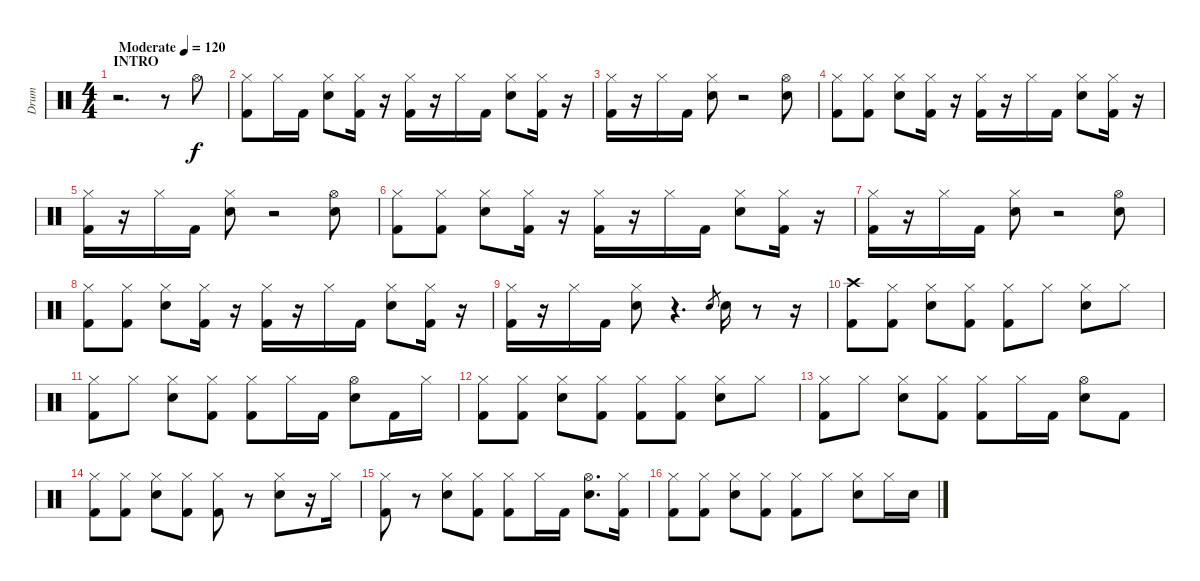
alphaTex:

\track ("Drum" "Drum") {instrument percussion}
\staff {score}
\articulation defaults
\ts (4 4)
\section ("" "INTRO")
\tempo (120 "Moderate")
\clef neutral
\ks c
r.2{d dy f} r.8 "Hi-Hat (open)".8 |
("Kick (hit) 2" "Hi-Hat (closed)").8 "Hi-Hat (closed)".16 "Kick (hit) 2".16 ("Snare (hit) 2" "Hi-Hat (closed)").8 ("Kick (hit) 2" "Hi-Hat (closed)").16 r.16 ("Kick (hit) 2" "Hi-Hat (closed)").16 r.16 "Hi-Hat (closed)".16 "Kick (hit) 2".16 ("Snare (hit) 2" "Hi-Hat (closed)").8 ("Kick (hit) 2" "Hi-Hat (closed)").16 r.16 |
("Kick (hit) 2" "Hi-Hat (closed)").16 r.16 "Hi-Hat (closed)".16 "Kick (hit) 2".16 ("Snare (hit) 2" "Hi-Hat (closed)").8 r.2 ("Snare (hit) 2" "Hi-Hat (open)").8 |
("Kick (hit) 2" "Hi-Hat (closed)").8 ("Kick (hit) 2" "Hi-Hat (closed)").8 ("Snare (hit) 2" "Hi-Hat (closed)").8 ("Kick (hit) 2" "Hi-Hat (closed)").16 r.16 ("Kick (hit) 2" "Hi-Hat (closed)").16 r.16 "Hi-Hat (closed)".16 "Kick (hit) 2".16 ("Snare (hit) 2" "Hi-Hat (closed)").8 ("Kick (hit) 2" "Hi-Hat (closed)").16 r.16 |
("Kick (hit) 2" "Hi-Hat (closed)").16 r.16 "Hi-Hat (closed)".16 "Kick (hit) 2".16 ("Snare (hit) 2" "Hi-Hat (closed)").8 r.2 ("Snare (hit) 2" "Hi-Hat (open)").8 |
("Kick (hit) 2" "Hi-Hat (closed)").8 ("Kick (hit) 2" "Hi-Hat (closed)").8 ("Snare (hit) 2" "Hi-Hat (closed)").8 ("Kick (hit) 2" "Hi-Hat (closed)").16 r.16 ("Kick (hit) 2" "Hi-Hat (closed)").16 r.16 "Hi-Hat (closed)".16 "Kick (hit) 2".16 ("Snare (hit) 2" "Hi-Hat (closed)").8 ("Kick (hit) 2" "Hi-Hat (closed)").16 r.16 |
("Kick (hit) 2" "Hi-Hat (closed)").16 r.16 "Hi-Hat (closed)".16 "Kick (hit) 2".16 ("Snare (hit) 2" "Hi-Hat (closed)").8 r.2 ("Snare (hit) 2" "Hi-Hat (open)").8 |
("Kick (hit) 2" "Hi-Hat (closed)").8 ("Kick (hit) 2" "Hi-Hat (closed)").8 ("Snare (hit) 2" "Hi-Hat (closed)").8 ("Kick (hit) 2" "Hi-Hat (closed)").16 r.16 ("Kick (hit) 2" "Hi-Hat (closed)").16 r.16 "Hi-Hat (closed)".16 "Kick (hit) 2".16 ("Snare (hit) 2" "Hi-Hat (closed)").8 ("Kick (hit) 2" "Hi-Hat (closed)").16 r.16 |
("Kick (hit) 2" "Hi-Hat (closed)").16 r.16 "Hi-Hat (closed)".16 "Kick (hit) 2".16 ("Snare (hit) 2" "Hi-Hat (closed)").8 r.4{d} "Electric Snare (hit)".8{gr} "Electric Snare (hit)".16 r.8 r.16 |
("Kick (hit) 2" "Crash high (hit)").8 ("Kick (hit) 2" "Hi-Hat (closed)").8 ("Snare (hit) 2" "Hi-Hat (closed)").8 ("Kick (hit) 2" "Hi-Hat (closed)").8 ("Kick (hit) 2" "Hi-Hat (closed)").8 "Hi-Hat (closed)".8 ("Snare (hit) 2" "Hi-Hat (closed)").8 "Hi-Hat (closed)".8 |
("Kick (hit) 2" "Hi-Hat (closed)").8 "Hi-Hat (closed)".8 ("Snare (hit) 2" "Hi-Hat (closed)").8 ("Kick (hit) 2" "Hi-Hat (closed)").8 ("Kick (hit) 2" "Hi-Hat (closed)").8 "Hi-Hat (closed)".16 "Kick (hit) 2".16 ("Snare (hit) 2" "Hi-Hat (open)").8 "Kick (hit) 2".16 "Hi-Hat (closed)".16 |
("Kick (hit) 2" "Hi-Hat (closed)").8 ("Kick (hit) 2" "Hi-Hat (closed)").8 ("Snare (hit) 2" "Hi-Hat (closed)").8 ("Kick (hit) 2" "Hi-Hat (closed)").8 ("Kick (hit) 2" "Hi-Hat (closed)").8 ("Kick (hit) 2" "Hi-Hat (closed)").8 ("Snare (hit) 2" "Hi-Hat (closed)").8 "Hi-Hat (closed)".8 |
("Kick (hit) 2" "Hi-Hat (closed)").8 "Hi-Hat (closed)".8 ("Snare (hit) 2" "Hi-Hat (closed)").8 ("Kick (hit) 2" "Hi-Hat (closed)").8 ("Kick (hit) 2" "Hi-Hat (closed)").8 "Hi-Hat (closed)".16 "Kick (hit) 2".16 ("Snare (hit) 2" "Hi-Hat (open)").8 "Kick (hit) 2".8 |
("Kick (hit) 2" "Hi-Hat (closed)").8 ("Kick (hit) 2" "Hi-Hat (closed)").8 ("Snare (hit) 2" "Hi-Hat (closed)").8 ("Kick (hit) 2" "Hi-Hat (closed)").8 ("Kick (hit) 2" "Hi-Hat (closed)").8 r.8 ("Snare (hit) 2" "Hi-Hat (closed)").8 r.16 "Hi-Hat (closed)".16 |
("Kick (hit) 2" "Hi-Hat (closed)").8 r.8 ("Snare (hit) 2" "Hi-Hat (closed)").8 ("Kick (hit) 2" "Hi-Hat (closed)").8 ("Kick (hit) 2" "Hi-Hat (closed)").8 "Hi-Hat (closed)".16 "Kick (hit) 2".16 ("Snare (hit) 2" "Hi-Hat (open)").8{d} ("Kick (hit) 2" "Hi-Hat (closed)").16 |
("Kick (hit) 2" "Hi-Hat (closed)").8 ("Kick (hit) 2" "Hi-Hat (closed)").8 ("Snare (hit) 2" "Hi-Hat (closed)").8 ("Kick (hit) 2" "Hi-Hat (closed)").8 ("Kick (hit) 2" "Hi-Hat (closed)").8 "Hi-Hat (closed)".8 ("Snare (hit) 2" "Hi-Hat (closed)").8 "Hi-Hat (closed)".16 "Snare (hit) 2".16
